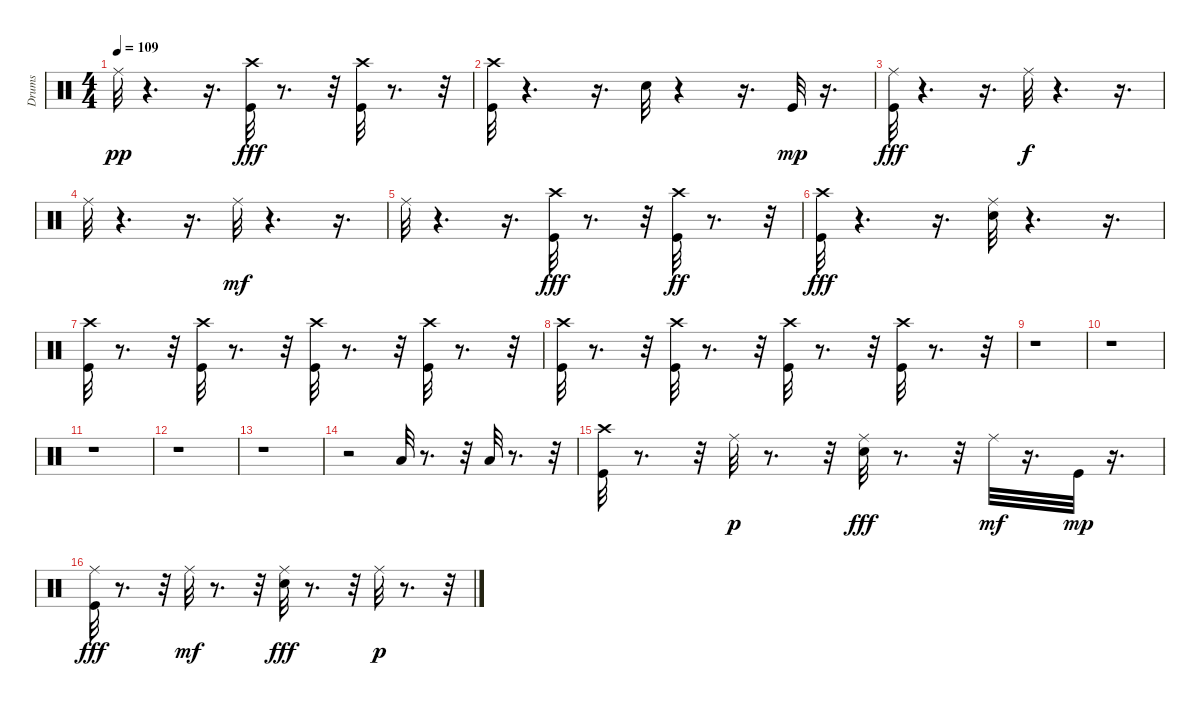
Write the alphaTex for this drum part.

\track ("Drums" "Drums") {instrument percussion}
\staff {score}
\articulation defaults
\ts (4 4)
\tempo 109
\clef neutral
\ks c "Ride (middle)".32{dy pp}
r.4{d} r.16{d} ("Crash high (hit)" "Kick (hit)").32{dy fff} r.8{d} r.32 ("Crash high (hit)" "Kick (hit)").32 r.8{d} r.32 |
("Crash high (hit)" "Kick (hit)").32 r.4{d} r.16{d} "Snare (hit) 2".32 r.4 r.16{d} "Kick (hit)".32{dy mp} r.16{d} |
("Ride (middle)" "Kick (hit)").32{dy fff} r.4{d} r.16{d} "Ride (middle)".32{dy f} r.4{d} r.16{d} |
"Ride (middle)".32 r.4{d} r.16{d} "Ride (middle)".32{dy mf} r.4{d} r.16{d} |
"Ride (middle)".32 r.4{d} r.16{d} ("Crash high (hit)" "Kick (hit)").32{dy fff} r.8{d} r.32 ("Crash high (hit)" "Kick (hit)").32{dy ff} r.8{d} r.32 |
("Crash high (hit)" "Kick (hit)").32{dy fff} r.4{d} r.16{d} ("Ride (middle)" "Snare (hit) 2").32 r.4{d} r.16{d} |
("Crash high (hit)" "Kick (hit)").32 r.8{d} r.32 ("Crash high (hit)" "Kick (hit)").32 r.8{d} r.32 ("Crash high (hit)" "Kick (hit)").32 r.8{d} r.32 ("Crash high (hit)" "Kick (hit)").32 r.8{d} r.32 |
("Crash high (hit)" "Kick (hit)").32 r.8{d} r.32 ("Crash high (hit)" "Kick (hit)").32 r.8{d} r.32 ("Crash high (hit)" "Kick (hit)").32 r.8{d} r.32 ("Crash high (hit)" "Kick (hit)").32 r.8{d} r.32 |
r.1 |
r.1 |
r.1 |
r.1 |
r.1 |
r.2 "Low Tom (hit)".32 r.8{d} r.32 "Low Floor Tom (hit)".32 r.8{d} r.32 |
("Crash high (hit)" "Kick (hit)").32 r.8{d} r.32 "Ride (middle)".32{dy p} r.8{d} r.32 ("Ride (middle)" "Snare (hit) 2").32{dy fff} r.8{d} r.32 "Ride (middle)".32{dy mf} r.16{d} "Kick (hit)".32{dy mp} r.16{d} |
("Ride (middle)" "Kick (hit)").32{dy fff} r.8{d} r.32 "Ride (middle)".32{dy mf} r.8{d} r.32 ("Ride (middle)" "Snare (hit) 2").32{dy fff} r.8{d} r.32 "Ride (middle)".32{dy p} r.8{d} r.32
